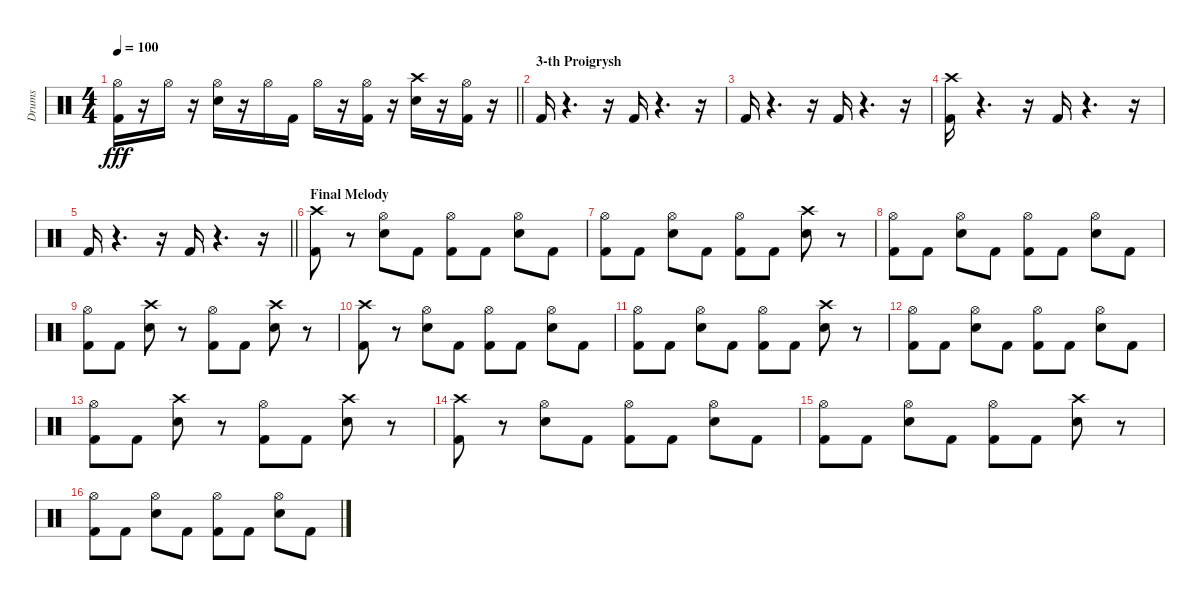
\track ("Drums" "Drums") {instrument percussion}
\staff {score}
\articulation defaults
\ts (4 4)
\tempo 100
\clef neutral
\barLineRight lightlight
\ks c
("Kick (hit) 2" "Hi-Hat (open)").16{dy fff} r.16 "Hi-Hat (open)".16 r.16 ("Snare (hit) 2" "Hi-Hat (open)").16 r.16 "Hi-Hat (open)".16 "Kick (hit) 2".16 "Hi-Hat (open)".16 r.16 ("Kick (hit) 2" "Hi-Hat (open)").16 r.16 ("Snare (hit) 2" "Crash high (hit)").16 r.16 ("Hi-Hat (open)" "Kick (hit) 2").16 r.16 |
\section ("" "3-th Proigrysh")
"Kick (hit) 2".16 r.4{d} r.16 "Kick (hit) 2".16 r.4{d} r.16 |
"Kick (hit) 2".16 r.4{d} r.16 "Kick (hit) 2".16 r.4{d} r.16 |
("Kick (hit) 2" "Crash high (hit)").16 r.4{d} r.16 "Kick (hit) 2".16 r.4{d} r.16 |
\barLineRight lightlight "Kick (hit) 2".16
r.4{d} r.16 "Kick (hit) 2".16 r.4{d} r.16 |
\section ("" "Final Melody")
("Kick (hit) 2" "Crash high (hit)").8 r.8 ("Hi-Hat (open)" "Snare (hit) 2").8 "Kick (hit) 2".8 ("Hi-Hat (open)" "Kick (hit) 2").8 "Kick (hit) 2".8 ("Snare (hit) 2" "Hi-Hat (open)").8 "Kick (hit) 2".8 |
("Hi-Hat (open)" "Kick (hit) 2").8 "Kick (hit) 2".8 ("Hi-Hat (open)" "Snare (hit) 2").8 "Kick (hit) 2".8 ("Hi-Hat (open)" "Kick (hit) 2").8 "Kick (hit) 2".8 ("Snare (hit) 2" "Crash high (hit)").8 r.8 |
("Hi-Hat (open)" "Kick (hit) 2").8 "Kick (hit) 2".8 ("Hi-Hat (open)" "Snare (hit) 2").8 "Kick (hit) 2".8 ("Hi-Hat (open)" "Kick (hit) 2").8 "Kick (hit) 2".8 ("Hi-Hat (open)" "Snare (hit) 2").8 "Kick (hit) 2".8 |
("Hi-Hat (open)" "Kick (hit) 2").8 "Kick (hit) 2".8 ("Crash high (hit)" "Snare (hit) 2").8 r.8 ("Hi-Hat (open)" "Kick (hit) 2").8 "Kick (hit) 2".8 ("Crash high (hit)" "Snare (hit) 2").8 r.8 |
("Kick (hit) 2" "Crash high (hit)").8 r.8 ("Hi-Hat (open)" "Snare (hit) 2").8 "Kick (hit) 2".8 ("Hi-Hat (open)" "Kick (hit) 2").8 "Kick (hit) 2".8 ("Snare (hit) 2" "Hi-Hat (open)").8 "Kick (hit) 2".8 |
("Hi-Hat (open)" "Kick (hit) 2").8 "Kick (hit) 2".8 ("Hi-Hat (open)" "Snare (hit) 2").8 "Kick (hit) 2".8 ("Hi-Hat (open)" "Kick (hit) 2").8 "Kick (hit) 2".8 ("Snare (hit) 2" "Crash high (hit)").8 r.8 |
("Hi-Hat (open)" "Kick (hit) 2").8 "Kick (hit) 2".8 ("Hi-Hat (open)" "Snare (hit) 2").8 "Kick (hit) 2".8 ("Hi-Hat (open)" "Kick (hit) 2").8 "Kick (hit) 2".8 ("Hi-Hat (open)" "Snare (hit) 2").8 "Kick (hit) 2".8 |
("Hi-Hat (open)" "Kick (hit) 2").8 "Kick (hit) 2".8 ("Crash high (hit)" "Snare (hit) 2").8 r.8 ("Hi-Hat (open)" "Kick (hit) 2").8 "Kick (hit) 2".8 ("Crash high (hit)" "Snare (hit) 2").8 r.8 |
("Kick (hit) 2" "Crash high (hit)").8 r.8 ("Hi-Hat (open)" "Snare (hit) 2").8 "Kick (hit) 2".8 ("Hi-Hat (open)" "Kick (hit) 2").8 "Kick (hit) 2".8 ("Snare (hit) 2" "Hi-Hat (open)").8 "Kick (hit) 2".8 |
("Hi-Hat (open)" "Kick (hit) 2").8 "Kick (hit) 2".8 ("Hi-Hat (open)" "Snare (hit) 2").8 "Kick (hit) 2".8 ("Hi-Hat (open)" "Kick (hit) 2").8 "Kick (hit) 2".8 ("Snare (hit) 2" "Crash high (hit)").8 r.8 |
("Hi-Hat (open)" "Kick (hit) 2").8 "Kick (hit) 2".8 ("Hi-Hat (open)" "Snare (hit) 2").8 "Kick (hit) 2".8 ("Hi-Hat (open)" "Kick (hit) 2").8 "Kick (hit) 2".8 ("Hi-Hat (open)" "Snare (hit) 2").8 "Kick (hit) 2".8
